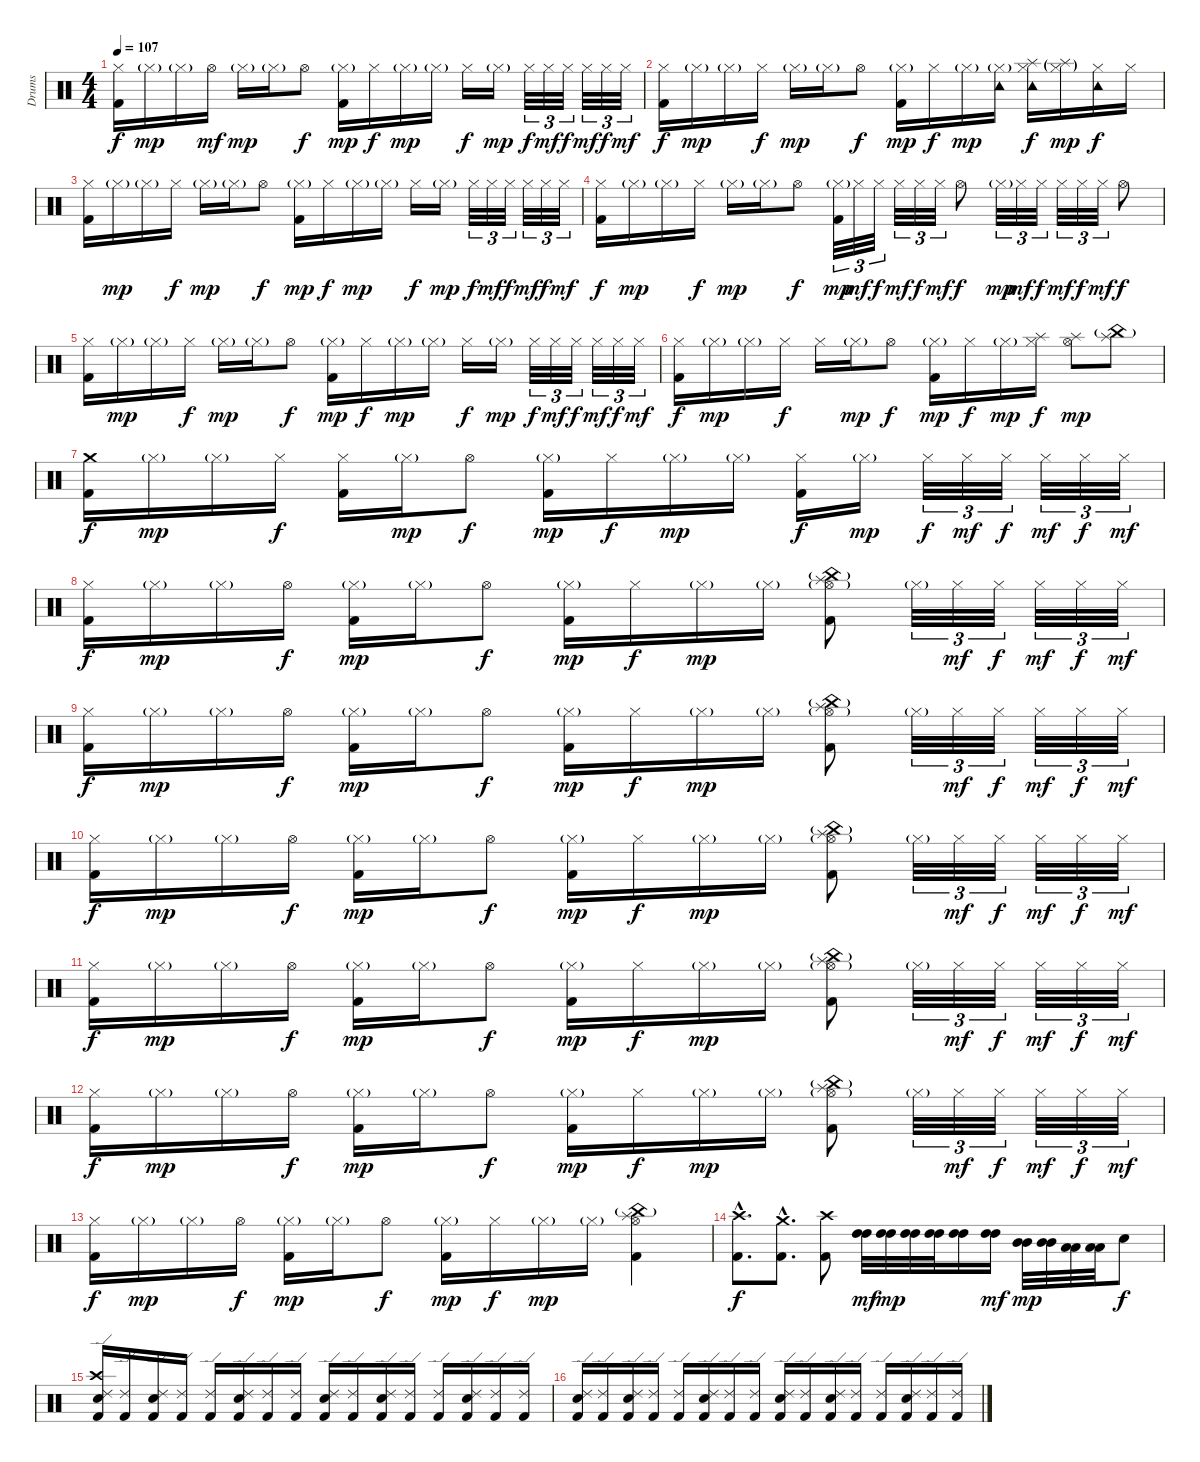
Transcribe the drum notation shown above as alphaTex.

\track ("Drums" "Drums") {instrument percussion}
\staff {score}
\articulation defaults
\ts (4 4)
\tempo 107
\clef neutral
\ks c
("Kick (hit) 2" "Hi-Hat (closed)").16{dy f} "Hi-Hat (closed)"{g}.16{dy mp} "Hi-Hat (closed)"{g}.16 "Hi-Hat (open)".16{dy mf} "Hi-Hat (closed)"{g}.16{dy mp} "Hi-Hat (closed)"{g}.16 "Hi-Hat (open)".8{dy f} ("Kick (hit) 2" "Hi-Hat (closed)"{g}).16{dy mp} "Hi-Hat (closed)".16{dy f} "Hi-Hat (closed)"{g}.16{dy mp} "Hi-Hat (closed)"{g}.16 "Hi-Hat (closed)".16{dy f} "Hi-Hat (closed)"{g}.16{dy mp} "Hi-Hat (closed)".32{tu (3 2) dy f} "Hi-Hat (closed)".32{tu (3 2) dy mf} "Hi-Hat (closed)".32{tu (3 2) dy f} "Hi-Hat (closed)".32{tu (3 2) dy mf} "Hi-Hat (closed)".32{tu (3 2) dy f} "Hi-Hat (closed)".32{tu (3 2) dy mf} |
("Kick (hit) 2" "Hi-Hat (closed)").16{dy f} "Hi-Hat (closed)"{g}.16{dy mp} "Hi-Hat (closed)"{g}.16 "Hi-Hat (closed)".16{dy f} "Hi-Hat (closed)"{g}.16{dy mp} "Hi-Hat (closed)"{g}.16 "Hi-Hat (open)".8{dy f} ("Kick (hit) 2" "Hi-Hat (closed)"{g}).16{dy mp} "Hi-Hat (closed)".16{dy f} "Hi-Hat (closed)"{g}.16{dy mp} ("Hi-Hat (closed)"{g} "Tambourine (hit)").16 ("Hi-Hat (closed)" "Tambourine (hit)" "Splash (hit)").16{dy f} ("Hi-Hat (closed)"{g} "Splash (hit)"{g}).16{dy mp} ("Hi-Hat (closed)" "Tambourine (hit)").16{dy f} "Hi-Hat (closed)".16 |
("Kick (hit) 2" "Hi-Hat (closed)").16 "Hi-Hat (closed)"{g}.16{dy mp} "Hi-Hat (closed)"{g}.16 "Hi-Hat (closed)".16{dy f} "Hi-Hat (closed)"{g}.16{dy mp} "Hi-Hat (closed)"{g}.16 "Hi-Hat (open)".8{dy f} ("Kick (hit) 2" "Hi-Hat (closed)"{g}).16{dy mp} "Hi-Hat (closed)".16{dy f} "Hi-Hat (closed)"{g}.16{dy mp} "Hi-Hat (closed)"{g}.16 "Hi-Hat (closed)".16{dy f} "Hi-Hat (closed)"{g}.16{dy mp} "Hi-Hat (closed)".32{tu (3 2) dy f} "Hi-Hat (closed)".32{tu (3 2) dy mf} "Hi-Hat (closed)".32{tu (3 2) dy f} "Hi-Hat (closed)".32{tu (3 2) dy mf} "Hi-Hat (closed)".32{tu (3 2) dy f} "Hi-Hat (closed)".32{tu (3 2) dy mf} |
("Kick (hit) 2" "Hi-Hat (closed)").16{dy f} "Hi-Hat (closed)"{g}.16{dy mp} "Hi-Hat (closed)"{g}.16 "Hi-Hat (closed)".16{dy f} "Hi-Hat (closed)"{g}.16{dy mp} "Hi-Hat (closed)"{g}.16 "Hi-Hat (open)".8{dy f} ("Kick (hit) 2" "Hi-Hat (closed)"{g}).32{tu (3 2) dy mp} "Hi-Hat (closed)".32{tu (3 2) dy mf} "Hi-Hat (closed)".32{tu (3 2) dy f} "Hi-Hat (closed)".32{tu (3 2) dy mf} "Hi-Hat (closed)".32{tu (3 2) dy f} "Hi-Hat (closed)".32{tu (3 2) dy mf} "Hi-Hat (open)".8{dy f} "Hi-Hat (closed)"{g}.32{tu (3 2) dy mp} "Hi-Hat (closed)".32{tu (3 2) dy mf} "Hi-Hat (closed)".32{tu (3 2) dy f} "Hi-Hat (closed)".32{tu (3 2) dy mf} "Hi-Hat (closed)".32{tu (3 2) dy f} "Hi-Hat (closed)".32{tu (3 2) dy mf} "Hi-Hat (open)".8{dy f} |
("Kick (hit) 2" "Hi-Hat (closed)").16 "Hi-Hat (closed)"{g}.16{dy mp} "Hi-Hat (closed)"{g}.16 "Hi-Hat (closed)".16{dy f} "Hi-Hat (closed)"{g}.16{dy mp} "Hi-Hat (closed)"{g}.16 "Hi-Hat (open)".8{dy f} ("Kick (hit) 2" "Hi-Hat (closed)"{g}).16{dy mp} "Hi-Hat (closed)".16{dy f} "Hi-Hat (closed)"{g}.16{dy mp} "Hi-Hat (closed)"{g}.16 "Hi-Hat (closed)".16{dy f} "Hi-Hat (closed)"{g}.16{dy mp} "Hi-Hat (closed)".32{tu (3 2) dy f} "Hi-Hat (closed)".32{tu (3 2) dy mf} "Hi-Hat (closed)".32{tu (3 2) dy f} "Hi-Hat (closed)".32{tu (3 2) dy mf} "Hi-Hat (closed)".32{tu (3 2) dy f} "Hi-Hat (closed)".32{tu (3 2) dy mf} |
("Kick (hit) 2" "Hi-Hat (closed)").16{dy f} "Hi-Hat (closed)"{g}.16{dy mp} "Hi-Hat (closed)"{g}.16 "Hi-Hat (closed)".16{dy f} "Hi-Hat (closed)".16 "Hi-Hat (closed)"{g}.16{dy mp} "Hi-Hat (open)".8{dy f} ("Kick (hit) 2" "Hi-Hat (closed)"{g}).16{dy mp} "Hi-Hat (closed)".16{dy f} "Hi-Hat (closed)"{g}.16{dy mp} ("Hi-Hat (closed)" "Splash (hit)").16{dy f} ("Hi-Hat (open)" "Splash (hit)").8{dy mp} ("Splash (hit)" "China (hit)"{g}).8 |
("Kick (hit) 2" "Crash medium (hit)").16{dy f} "Hi-Hat (closed)"{g}.16{dy mp} "Hi-Hat (closed)"{g}.16 "Hi-Hat (closed)".16{dy f} ("Kick (hit) 2" "Hi-Hat (closed)").16 "Hi-Hat (closed)"{g}.16{dy mp} "Hi-Hat (open)".8{dy f} ("Kick (hit) 2" "Hi-Hat (closed)"{g}).16{dy mp} "Hi-Hat (closed)".16{dy f} "Hi-Hat (closed)"{g}.16{dy mp} "Hi-Hat (closed)"{g}.16 ("Kick (hit) 2" "Hi-Hat (closed)").16{dy f} "Hi-Hat (closed)"{g}.16{dy mp} "Hi-Hat (closed)".32{tu (3 2) dy f} "Hi-Hat (closed)".32{tu (3 2) dy mf} "Hi-Hat (closed)".32{tu (3 2) dy f} "Hi-Hat (closed)".32{tu (3 2) dy mf} "Hi-Hat (closed)".32{tu (3 2) dy f} "Hi-Hat (closed)".32{tu (3 2) dy mf} |
("Kick (hit) 2" "Hi-Hat (closed)").16{dy f} "Hi-Hat (closed)"{g}.16{dy mp} "Hi-Hat (closed)"{g}.16 "Hi-Hat (open)".16{dy f} ("Kick (hit) 2" "Hi-Hat (closed)"{g}).16{dy mp} "Hi-Hat (closed)"{g}.16 "Hi-Hat (open)".8{dy f} ("Kick (hit) 2" "Hi-Hat (closed)"{g}).16{dy mp} "Hi-Hat (closed)".16{dy f} "Hi-Hat (closed)"{g}.16{dy mp} "Hi-Hat (closed)"{g}.16 ("Kick (hit) 2" "Hi-Hat (open)"{g} "Splash (hit)" "China (hit)"{g}).8 "Hi-Hat (closed)"{g}.32{tu (3 2)} "Hi-Hat (closed)".32{tu (3 2) dy mf} "Hi-Hat (closed)".32{tu (3 2) dy f} "Hi-Hat (closed)".32{tu (3 2) dy mf} "Hi-Hat (closed)".32{tu (3 2) dy f} "Hi-Hat (closed)".32{tu (3 2) dy mf} |
("Kick (hit) 2" "Hi-Hat (closed)").16{dy f} "Hi-Hat (closed)"{g}.16{dy mp} "Hi-Hat (closed)"{g}.16 "Hi-Hat (open)".16{dy f} ("Kick (hit) 2" "Hi-Hat (closed)"{g}).16{dy mp} "Hi-Hat (closed)"{g}.16 "Hi-Hat (open)".8{dy f} ("Kick (hit) 2" "Hi-Hat (closed)"{g}).16{dy mp} "Hi-Hat (closed)".16{dy f} "Hi-Hat (closed)"{g}.16{dy mp} "Hi-Hat (closed)"{g}.16 ("Kick (hit) 2" "Hi-Hat (open)"{g} "Splash (hit)" "China (hit)"{g}).8 "Hi-Hat (closed)"{g}.32{tu (3 2)} "Hi-Hat (closed)".32{tu (3 2) dy mf} "Hi-Hat (closed)".32{tu (3 2) dy f} "Hi-Hat (closed)".32{tu (3 2) dy mf} "Hi-Hat (closed)".32{tu (3 2) dy f} "Hi-Hat (closed)".32{tu (3 2) dy mf} |
("Kick (hit) 2" "Hi-Hat (closed)").16{dy f} "Hi-Hat (closed)"{g}.16{dy mp} "Hi-Hat (closed)"{g}.16 "Hi-Hat (open)".16{dy f} ("Kick (hit) 2" "Hi-Hat (closed)"{g}).16{dy mp} "Hi-Hat (closed)"{g}.16 "Hi-Hat (open)".8{dy f} ("Kick (hit) 2" "Hi-Hat (closed)"{g}).16{dy mp} "Hi-Hat (closed)".16{dy f} "Hi-Hat (closed)"{g}.16{dy mp} "Hi-Hat (closed)"{g}.16 ("Kick (hit) 2" "Hi-Hat (open)"{g} "Splash (hit)" "China (hit)"{g}).8 "Hi-Hat (closed)"{g}.32{tu (3 2)} "Hi-Hat (closed)".32{tu (3 2) dy mf} "Hi-Hat (closed)".32{tu (3 2) dy f} "Hi-Hat (closed)".32{tu (3 2) dy mf} "Hi-Hat (closed)".32{tu (3 2) dy f} "Hi-Hat (closed)".32{tu (3 2) dy mf} |
("Kick (hit) 2" "Hi-Hat (closed)").16{dy f} "Hi-Hat (closed)"{g}.16{dy mp} "Hi-Hat (closed)"{g}.16 "Hi-Hat (open)".16{dy f} ("Kick (hit) 2" "Hi-Hat (closed)"{g}).16{dy mp} "Hi-Hat (closed)"{g}.16 "Hi-Hat (open)".8{dy f} ("Kick (hit) 2" "Hi-Hat (closed)"{g}).16{dy mp} "Hi-Hat (closed)".16{dy f} "Hi-Hat (closed)"{g}.16{dy mp} "Hi-Hat (closed)"{g}.16 ("Kick (hit) 2" "Hi-Hat (open)"{g} "Splash (hit)" "China (hit)"{g}).8 "Hi-Hat (closed)"{g}.32{tu (3 2)} "Hi-Hat (closed)".32{tu (3 2) dy mf} "Hi-Hat (closed)".32{tu (3 2) dy f} "Hi-Hat (closed)".32{tu (3 2) dy mf} "Hi-Hat (closed)".32{tu (3 2) dy f} "Hi-Hat (closed)".32{tu (3 2) dy mf} |
("Kick (hit) 2" "Hi-Hat (closed)").16{dy f} "Hi-Hat (closed)"{g}.16{dy mp} "Hi-Hat (closed)"{g}.16 "Hi-Hat (open)".16{dy f} ("Kick (hit) 2" "Hi-Hat (closed)"{g}).16{dy mp} "Hi-Hat (closed)"{g}.16 "Hi-Hat (open)".8{dy f} ("Kick (hit) 2" "Hi-Hat (closed)"{g}).16{dy mp} "Hi-Hat (closed)".16{dy f} "Hi-Hat (closed)"{g}.16{dy mp} "Hi-Hat (closed)"{g}.16 ("Kick (hit) 2" "Hi-Hat (open)"{g} "Splash (hit)" "China (hit)"{g}).8 "Hi-Hat (closed)"{g}.32{tu (3 2)} "Hi-Hat (closed)".32{tu (3 2) dy mf} "Hi-Hat (closed)".32{tu (3 2) dy f} "Hi-Hat (closed)".32{tu (3 2) dy mf} "Hi-Hat (closed)".32{tu (3 2) dy f} "Hi-Hat (closed)".32{tu (3 2) dy mf} |
("Kick (hit) 2" "Hi-Hat (closed)").16{dy f} "Hi-Hat (closed)"{g}.16{dy mp} "Hi-Hat (closed)"{g}.16 "Hi-Hat (open)".16{dy f} ("Kick (hit) 2" "Hi-Hat (closed)"{g}).16{dy mp} "Hi-Hat (closed)"{g}.16 "Hi-Hat (open)".8{dy f} ("Kick (hit) 2" "Hi-Hat (closed)"{g}).16{dy mp} "Hi-Hat (closed)".16{dy f} "Hi-Hat (closed)"{g}.16{dy mp} "Hi-Hat (closed)"{g}.16 ("Kick (hit) 2" "Hi-Hat (open)" "Splash (hit)" "China (hit)"{g}).4 |
("Kick (hit) 2"{hac} "Crash high (hit)"{hac}).8{d dy f} ("Kick (hit) 2"{hac} "Crash medium (hit)"{hac}).8{d} ("Kick (hit) 2" "Crash high (hit)").8 ("High Tom (hit)" "High Tom (hit)").32{dy mf} ("High Tom (hit)" "High Tom (hit)").32{dy mp} ("High Tom (hit)" "High Tom (hit)").32 ("High Tom (hit)" "High Tom (hit)").32 ("High Tom (hit)" "High Tom (hit)").16 ("High Tom (hit)" "High Tom (hit)").16{dy mf} ("Mid Tom (hit)" "Mid Tom (hit)").32{dy mp} ("Mid Tom (hit)" "Mid Tom (hit)").32 ("Low Tom (hit)" "Low Tom (hit)").32 ("Low Tom (hit)" "Low Tom (hit)").32 "Electric Snare (hit)".8{dy f} |
("Kick (hit) 2" "Electric Snare (hit)" "Ride (edge) 2" "Crash high (hit)").16 ("Kick (hit) 2" "Ride (edge) 2").16 ("Kick (hit) 2" "Electric Snare (hit)" "Ride (edge) 2").16 ("Kick (hit) 2" "Ride (edge) 2").16 ("Kick (hit) 2" "Ride (edge) 2").16 ("Kick (hit) 2" "Electric Snare (hit)" "Ride (edge) 2").16 ("Kick (hit) 2" "Ride (edge) 2").16 ("Kick (hit) 2" "Ride (edge) 2").16 ("Kick (hit) 2" "Electric Snare (hit)" "Ride (edge) 2").16 ("Kick (hit) 2" "Ride (edge) 2").16 ("Kick (hit) 2" "Electric Snare (hit)" "Ride (edge) 2").16 ("Kick (hit) 2" "Ride (edge) 2").16 ("Kick (hit) 2" "Ride (edge) 2").16 ("Kick (hit) 2" "Electric Snare (hit)" "Ride (edge) 2").16 ("Kick (hit) 2" "Ride (edge) 2").16 ("Kick (hit) 2" "Ride (edge) 2").16 |
("Kick (hit) 2" "Electric Snare (hit)" "Ride (edge) 2").16 ("Kick (hit) 2" "Ride (edge) 2").16 ("Kick (hit) 2" "Electric Snare (hit)" "Ride (edge) 2").16 ("Kick (hit) 2" "Ride (edge) 2").16 ("Kick (hit) 2" "Ride (edge) 2").16 ("Kick (hit) 2" "Electric Snare (hit)" "Ride (edge) 2").16 ("Kick (hit) 2" "Ride (edge) 2").16 ("Kick (hit) 2" "Ride (edge) 2").16 ("Kick (hit) 2" "Electric Snare (hit)" "Ride (edge) 2").16 ("Kick (hit) 2" "Ride (edge) 2").16 ("Kick (hit) 2" "Electric Snare (hit)" "Ride (edge) 2").16 ("Kick (hit) 2" "Ride (edge) 2").16 ("Kick (hit) 2" "Ride (edge) 2").16 ("Kick (hit) 2" "Electric Snare (hit)" "Ride (edge) 2").16 ("Kick (hit) 2" "Ride (edge) 2").16 ("Kick (hit) 2" "Ride (edge) 2").16
